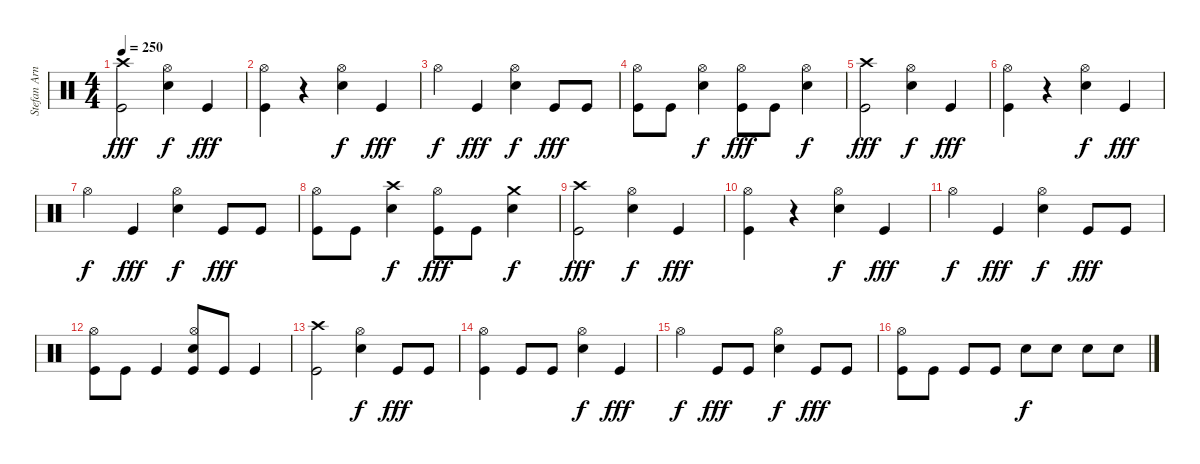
\track ("Stefan Arnold (Batería)" "Stefan Arn") {instrument percussion}
\staff {score}
\articulation defaults
\ts (4 4)
\tempo 250
\clef neutral
\ks c
("Crash high (hit)" "Kick (hit)").2{dy fff} ("Hi-Hat (open)" "Electric Snare (hit)").4{dy f} "Kick (hit)".4{dy fff} |
("Hi-Hat (open)" "Kick (hit)").4 r.4 ("Hi-Hat (open)" "Electric Snare (hit)").4{dy f} "Kick (hit)".4{dy fff} |
"Hi-Hat (open)".4{dy f} "Kick (hit)".4{dy fff} ("Hi-Hat (open)" "Electric Snare (hit)").4{dy f} "Kick (hit)".8{dy fff} "Kick (hit)".8 |
("Hi-Hat (open)" "Kick (hit)").8 "Kick (hit)".8 ("Hi-Hat (open)" "Electric Snare (hit)").4{dy f} ("Hi-Hat (open)" "Kick (hit)").8{dy fff} "Kick (hit)".8 ("Hi-Hat (open)" "Electric Snare (hit)").4{dy f} |
("Crash high (hit)" "Kick (hit)").2{dy fff} ("Hi-Hat (open)" "Electric Snare (hit)").4{dy f} "Kick (hit)".4{dy fff} |
("Hi-Hat (open)" "Kick (hit)").4 r.4 ("Hi-Hat (open)" "Electric Snare (hit)").4{dy f} "Kick (hit)".4{dy fff} |
"Hi-Hat (open)".4{dy f} "Kick (hit)".4{dy fff} ("Hi-Hat (open)" "Electric Snare (hit)").4{dy f} "Kick (hit)".8{dy fff} "Kick (hit)".8 |
("Hi-Hat (open)" "Kick (hit)").8 "Kick (hit)".8 ("Crash high (hit)" "Electric Snare (hit)").4{dy f} ("Hi-Hat (open)" "Kick (hit)").8{dy fff} "Kick (hit)".8 ("Crash medium (hit)" "Electric Snare (hit)").4{dy f} |
("Crash high (hit)" "Kick (hit)").2{dy fff} ("Hi-Hat (open)" "Electric Snare (hit)").4{dy f} "Kick (hit)".4{dy fff} |
("Hi-Hat (open)" "Kick (hit)").4 r.4 ("Hi-Hat (open)" "Electric Snare (hit)").4{dy f} "Kick (hit)".4{dy fff} |
"Hi-Hat (open)".4{dy f} "Kick (hit)".4{dy fff} ("Hi-Hat (open)" "Electric Snare (hit)").4{dy f} "Kick (hit)".8{dy fff} "Kick (hit)".8 |
("Hi-Hat (open)" "Kick (hit)").8 "Kick (hit)".8 "Kick (hit)".4 ("Hi-Hat (open)" "Electric Snare (hit)" "Kick (hit)").8 "Kick (hit)".8 "Kick (hit)".4 |
("Crash high (hit)" "Kick (hit)").2 ("Hi-Hat (open)" "Electric Snare (hit)").4{dy f} "Kick (hit)".8{dy fff} "Kick (hit)".8 |
("Hi-Hat (open)" "Kick (hit)").4 "Kick (hit)".8 "Kick (hit)".8 ("Hi-Hat (open)" "Electric Snare (hit)").4{dy f} "Kick (hit)".4{dy fff} |
"Hi-Hat (open)".4{dy f} "Kick (hit)".8{dy fff} "Kick (hit)".8 ("Hi-Hat (open)" "Electric Snare (hit)").4{dy f} "Kick (hit)".8{dy fff} "Kick (hit)".8 |
("Hi-Hat (open)" "Kick (hit)").8 "Kick (hit)".8 "Kick (hit)".8 "Kick (hit)".8 "Electric Snare (hit)".8{dy f} "Electric Snare (hit)".8 "Electric Snare (hit)".8 "Electric Snare (hit)".8
